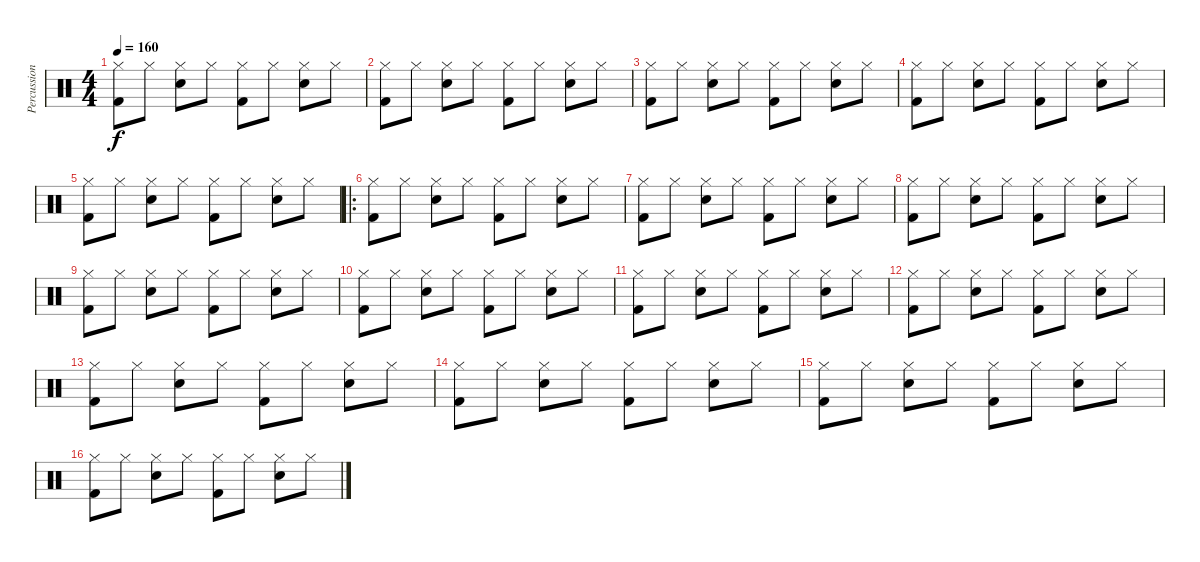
\track ("Percussion" "Percussion") {instrument percussion}
\staff {score}
\articulation defaults
\ts (4 4)
\tempo 160
\clef neutral
\ks c
("Hi-Hat (closed)" "Kick (hit) 2").8{dy f} "Hi-Hat (closed)".8 ("Hi-Hat (closed)" "Electric Snare (hit)").8 "Hi-Hat (closed)".8 ("Hi-Hat (closed)" "Kick (hit) 2").8 "Hi-Hat (closed)".8 ("Hi-Hat (closed)" "Electric Snare (hit)").8 "Hi-Hat (closed)".8 |
("Hi-Hat (closed)" "Kick (hit) 2").8 "Hi-Hat (closed)".8 ("Hi-Hat (closed)" "Electric Snare (hit)").8 "Hi-Hat (closed)".8 ("Hi-Hat (closed)" "Kick (hit) 2").8 "Hi-Hat (closed)".8 ("Hi-Hat (closed)" "Electric Snare (hit)").8 "Hi-Hat (closed)".8 |
("Hi-Hat (closed)" "Kick (hit) 2").8 "Hi-Hat (closed)".8 ("Hi-Hat (closed)" "Electric Snare (hit)").8 "Hi-Hat (closed)".8 ("Hi-Hat (closed)" "Kick (hit) 2").8 "Hi-Hat (closed)".8 ("Hi-Hat (closed)" "Electric Snare (hit)").8 "Hi-Hat (closed)".8 |
("Hi-Hat (closed)" "Kick (hit) 2").8 "Hi-Hat (closed)".8 ("Hi-Hat (closed)" "Electric Snare (hit)").8 "Hi-Hat (closed)".8 ("Hi-Hat (closed)" "Kick (hit) 2").8 "Hi-Hat (closed)".8 ("Hi-Hat (closed)" "Electric Snare (hit)").8 "Hi-Hat (closed)".8 |
("Hi-Hat (closed)" "Kick (hit) 2").8 "Hi-Hat (closed)".8 ("Hi-Hat (closed)" "Electric Snare (hit)").8 "Hi-Hat (closed)".8 ("Hi-Hat (closed)" "Kick (hit) 2").8 "Hi-Hat (closed)".8 ("Hi-Hat (closed)" "Electric Snare (hit)").8 "Hi-Hat (closed)".8 |
\ro
("Hi-Hat (closed)" "Kick (hit) 2").8 "Hi-Hat (closed)".8 ("Hi-Hat (closed)" "Electric Snare (hit)").8 "Hi-Hat (closed)".8 ("Hi-Hat (closed)" "Kick (hit) 2").8 "Hi-Hat (closed)".8 ("Hi-Hat (closed)" "Electric Snare (hit)").8 "Hi-Hat (closed)".8 |
("Hi-Hat (closed)" "Kick (hit) 2").8 "Hi-Hat (closed)".8 ("Hi-Hat (closed)" "Electric Snare (hit)").8 "Hi-Hat (closed)".8 ("Hi-Hat (closed)" "Kick (hit) 2").8 "Hi-Hat (closed)".8 ("Hi-Hat (closed)" "Electric Snare (hit)").8 "Hi-Hat (closed)".8 |
("Hi-Hat (closed)" "Kick (hit) 2").8 "Hi-Hat (closed)".8 ("Hi-Hat (closed)" "Electric Snare (hit)").8 "Hi-Hat (closed)".8 ("Hi-Hat (closed)" "Kick (hit) 2").8 "Hi-Hat (closed)".8 ("Hi-Hat (closed)" "Electric Snare (hit)").8 "Hi-Hat (closed)".8 |
("Hi-Hat (closed)" "Kick (hit) 2").8 "Hi-Hat (closed)".8 ("Hi-Hat (closed)" "Electric Snare (hit)").8 "Hi-Hat (closed)".8 ("Hi-Hat (closed)" "Kick (hit) 2").8 "Hi-Hat (closed)".8 ("Hi-Hat (closed)" "Electric Snare (hit)").8 "Hi-Hat (closed)".8 |
("Hi-Hat (closed)" "Kick (hit) 2").8 "Hi-Hat (closed)".8 ("Hi-Hat (closed)" "Electric Snare (hit)").8 "Hi-Hat (closed)".8 ("Hi-Hat (closed)" "Kick (hit) 2").8 "Hi-Hat (closed)".8 ("Hi-Hat (closed)" "Electric Snare (hit)").8 "Hi-Hat (closed)".8 |
("Hi-Hat (closed)" "Kick (hit) 2").8 "Hi-Hat (closed)".8 ("Hi-Hat (closed)" "Electric Snare (hit)").8 "Hi-Hat (closed)".8 ("Hi-Hat (closed)" "Kick (hit) 2").8 "Hi-Hat (closed)".8 ("Hi-Hat (closed)" "Electric Snare (hit)").8 "Hi-Hat (closed)".8 |
("Hi-Hat (closed)" "Kick (hit) 2").8 "Hi-Hat (closed)".8 ("Hi-Hat (closed)" "Electric Snare (hit)").8 "Hi-Hat (closed)".8 ("Hi-Hat (closed)" "Kick (hit) 2").8 "Hi-Hat (closed)".8 ("Hi-Hat (closed)" "Electric Snare (hit)").8 "Hi-Hat (closed)".8 |
("Hi-Hat (closed)" "Kick (hit) 2").8 "Hi-Hat (closed)".8 ("Hi-Hat (closed)" "Electric Snare (hit)").8 "Hi-Hat (closed)".8 ("Hi-Hat (closed)" "Kick (hit) 2").8 "Hi-Hat (closed)".8 ("Hi-Hat (closed)" "Electric Snare (hit)").8 "Hi-Hat (closed)".8 |
("Hi-Hat (closed)" "Kick (hit) 2").8 "Hi-Hat (closed)".8 ("Hi-Hat (closed)" "Electric Snare (hit)").8 "Hi-Hat (closed)".8 ("Hi-Hat (closed)" "Kick (hit) 2").8 "Hi-Hat (closed)".8 ("Hi-Hat (closed)" "Electric Snare (hit)").8 "Hi-Hat (closed)".8 |
("Hi-Hat (closed)" "Kick (hit) 2").8 "Hi-Hat (closed)".8 ("Hi-Hat (closed)" "Electric Snare (hit)").8 "Hi-Hat (closed)".8 ("Hi-Hat (closed)" "Kick (hit) 2").8 "Hi-Hat (closed)".8 ("Hi-Hat (closed)" "Electric Snare (hit)").8 "Hi-Hat (closed)".8 |
("Hi-Hat (closed)" "Kick (hit) 2").8 "Hi-Hat (closed)".8 ("Hi-Hat (closed)" "Electric Snare (hit)").8 "Hi-Hat (closed)".8 ("Hi-Hat (closed)" "Kick (hit) 2").8 "Hi-Hat (closed)".8 ("Hi-Hat (closed)" "Electric Snare (hit)").8 "Hi-Hat (closed)".8
